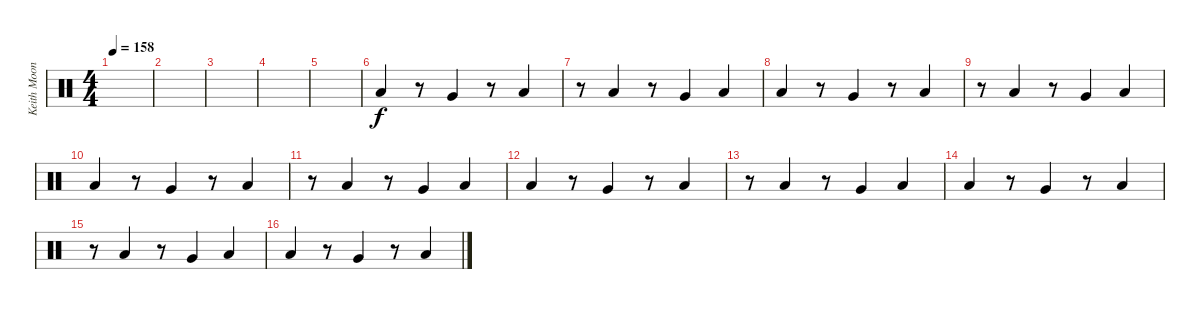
\track ("Keith Moon" "Keith Moon") {instrument percussion}
\staff {score}
\articulation defaults
\ts (4 4)
\tempo 158
\clef neutral
\ks c
|
|
|
|
|
"Low Floor Tom (hit)".4 r.8 "Very Low Tom (hit)".4 r.8 "Low Tom (hit)".4 |
r.8 "Low Tom (hit)".4 r.8 "Very Low Tom (hit)".4 "Low Tom (hit)".4 |
"Low Floor Tom (hit)".4 r.8 "Very Low Tom (hit)".4 r.8 "Low Tom (hit)".4 |
r.8 "Low Tom (hit)".4 r.8 "Very Low Tom (hit)".4 "Low Tom (hit)".4 |
"Low Floor Tom (hit)".4 r.8 "Very Low Tom (hit)".4 r.8 "Low Tom (hit)".4 |
r.8 "Low Tom (hit)".4 r.8 "Very Low Tom (hit)".4 "Low Tom (hit)".4 |
"Low Floor Tom (hit)".4 r.8 "Very Low Tom (hit)".4 r.8 "Low Tom (hit)".4 |
r.8 "Low Tom (hit)".4 r.8 "Very Low Tom (hit)".4 "Low Tom (hit)".4 |
"Low Floor Tom (hit)".4 r.8 "Very Low Tom (hit)".4 r.8 "Low Tom (hit)".4 |
r.8 "Low Tom (hit)".4 r.8 "Very Low Tom (hit)".4 "Low Tom (hit)".4 |
"Low Floor Tom (hit)".4 r.8 "Very Low Tom (hit)".4 r.8 "Low Tom (hit)".4
